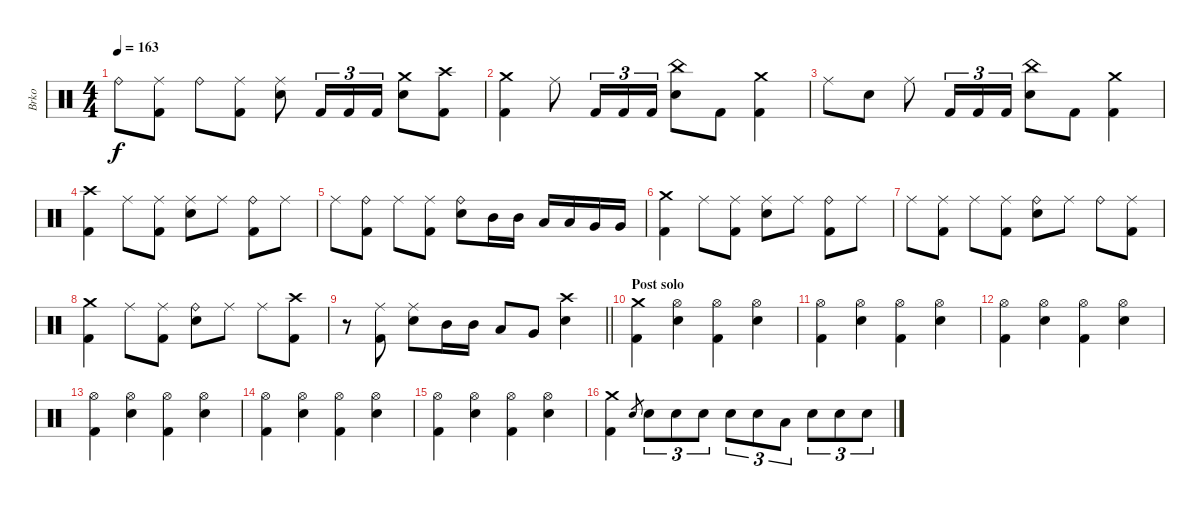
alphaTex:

\track ("Brko" "Brko") {instrument percussion}
\staff {score}
\articulation defaults
\ts (4 4)
\tempo 163
\clef neutral
\ks c "Ride (bell)".8{dy f}
("Ride (middle)" "Kick (hit) 2").8 "Ride (bell)".8 ("Ride (middle)" "Kick (hit) 2").8 ("Ride (middle)" "Electric Snare (hit)").8 "Kick (hit) 2".16{tu (3 2)} "Kick (hit) 2".16{tu (3 2)} "Kick (hit) 2".16{tu (3 2)} ("Crash medium (hit)" "Electric Snare (hit)").8 ("Crash high (hit)" "Kick (hit) 2").8 |
("Crash medium (hit)" "Kick (hit) 2").4 "Ride (middle)".8 "Kick (hit) 2".16{tu (3 2)} "Kick (hit) 2".16{tu (3 2)} "Kick (hit) 2".16{tu (3 2)} ("China (hit)" "Electric Snare (hit)").8 "Kick (hit) 2".8 ("Crash medium (hit)" "Kick (hit) 2").4 |
"Ride (middle)".8 "Electric Snare (hit)".8 "Ride (middle)".8 "Kick (hit) 2".16{tu (3 2)} "Kick (hit) 2".16{tu (3 2)} "Kick (hit) 2".16{tu (3 2)} ("China (hit)" "Electric Snare (hit)").8 "Kick (hit) 2".8 ("Crash medium (hit)" "Kick (hit) 2").4 |
("Crash high (hit)" "Kick (hit) 2").4 "Ride (middle)".8 ("Ride (middle)" "Kick (hit) 2").8 ("Ride (middle)" "Electric Snare (hit)").8 "Ride (middle)".8 ("Ride (bell)" "Kick (hit) 2").8 "Ride (middle)".8 |
"Ride (middle)".8 ("Ride (bell)" "Kick (hit) 2").8 "Ride (middle)".8 ("Ride (middle)" "Kick (hit) 2").8 ("Ride (bell)" "Electric Snare (hit)").8 "Mid Tom (hit)".16 "Mid Tom (hit)".16 "Low Tom (hit)".16 "Low Tom (hit)".16 "Very Low Tom (hit)".16 "Very Low Tom (hit)".16 |
("Crash medium (hit)" "Kick (hit) 2").4 "Ride (middle)".8 ("Ride (middle)" "Kick (hit) 2").8 ("Ride (middle)" "Electric Snare (hit)").8 "Ride (middle)".8 ("Ride (bell)" "Kick (hit) 2").8 "Ride (middle)".8 |
"Ride (middle)".8 ("Ride (middle)" "Kick (hit) 2").8 "Ride (middle)".8 ("Ride (middle)" "Kick (hit) 2").8 ("Ride (bell)" "Electric Snare (hit)").8 "Ride (middle)".8 "Ride (bell)".8 ("Ride (middle)" "Kick (hit) 2").8 |
("Crash medium (hit)" "Kick (hit) 2").4 "Ride (middle)".8 ("Ride (middle)" "Kick (hit) 2").8 ("Ride (bell)" "Electric Snare (hit)").8 "Ride (middle)".8 "Ride (middle)".8 ("Crash high (hit)" "Kick (hit) 2").8 |
\barLineRight lightlight
r.8 ("Ride (middle)" "Kick (hit) 2").8 ("Ride (middle)" "Electric Snare (hit)").8 "Mid Tom (hit)".16 "Mid Tom (hit)".16 "Low Tom (hit)".8 "Very Low Tom (hit)".8 ("Crash high (hit)" "Electric Snare (hit)").4 |
\section ("" "Post solo")
("Crash medium (hit)" "Kick (hit) 2").4 ("Hi-Hat (open)" "Electric Snare (hit)").4 ("Hi-Hat (open)" "Kick (hit) 2").4 ("Hi-Hat (open)" "Electric Snare (hit)").4 |
("Hi-Hat (open)" "Kick (hit) 2").4 ("Hi-Hat (open)" "Electric Snare (hit)").4 ("Hi-Hat (open)" "Kick (hit) 2").4 ("Hi-Hat (open)" "Electric Snare (hit)").4 |
("Hi-Hat (open)" "Kick (hit) 2").4 ("Hi-Hat (open)" "Electric Snare (hit)").4 ("Hi-Hat (open)" "Kick (hit) 2").4 ("Hi-Hat (open)" "Electric Snare (hit)").4 |
("Hi-Hat (open)" "Kick (hit) 2").4 ("Hi-Hat (open)" "Electric Snare (hit)").4 ("Hi-Hat (open)" "Kick (hit) 2").4 ("Hi-Hat (open)" "Electric Snare (hit)").4 |
("Hi-Hat (open)" "Kick (hit) 2").4 ("Hi-Hat (open)" "Electric Snare (hit)").4 ("Hi-Hat (open)" "Kick (hit) 2").4 ("Hi-Hat (open)" "Electric Snare (hit)").4 |
("Hi-Hat (open)" "Kick (hit) 2").4 ("Hi-Hat (open)" "Electric Snare (hit)").4 ("Hi-Hat (open)" "Kick (hit) 2").4 ("Hi-Hat (open)" "Electric Snare (hit)").4 |
("Crash medium (hit)" "Kick (hit) 2").4 "Electric Snare (hit)".8{gr} "Electric Snare (hit)".8{tu (3 2)} "Electric Snare (hit)".8{tu (3 2)} "Electric Snare (hit)".8{tu (3 2)} "Electric Snare (hit)".8{tu (3 2)} "Electric Snare (hit)".8{tu (3 2)} "Low Tom (hit)".8{tu (3 2)} "Electric Snare (hit)".8{tu (3 2)} "Electric Snare (hit)".8{tu (3 2)} "Electric Snare (hit)".8{tu (3 2)}
